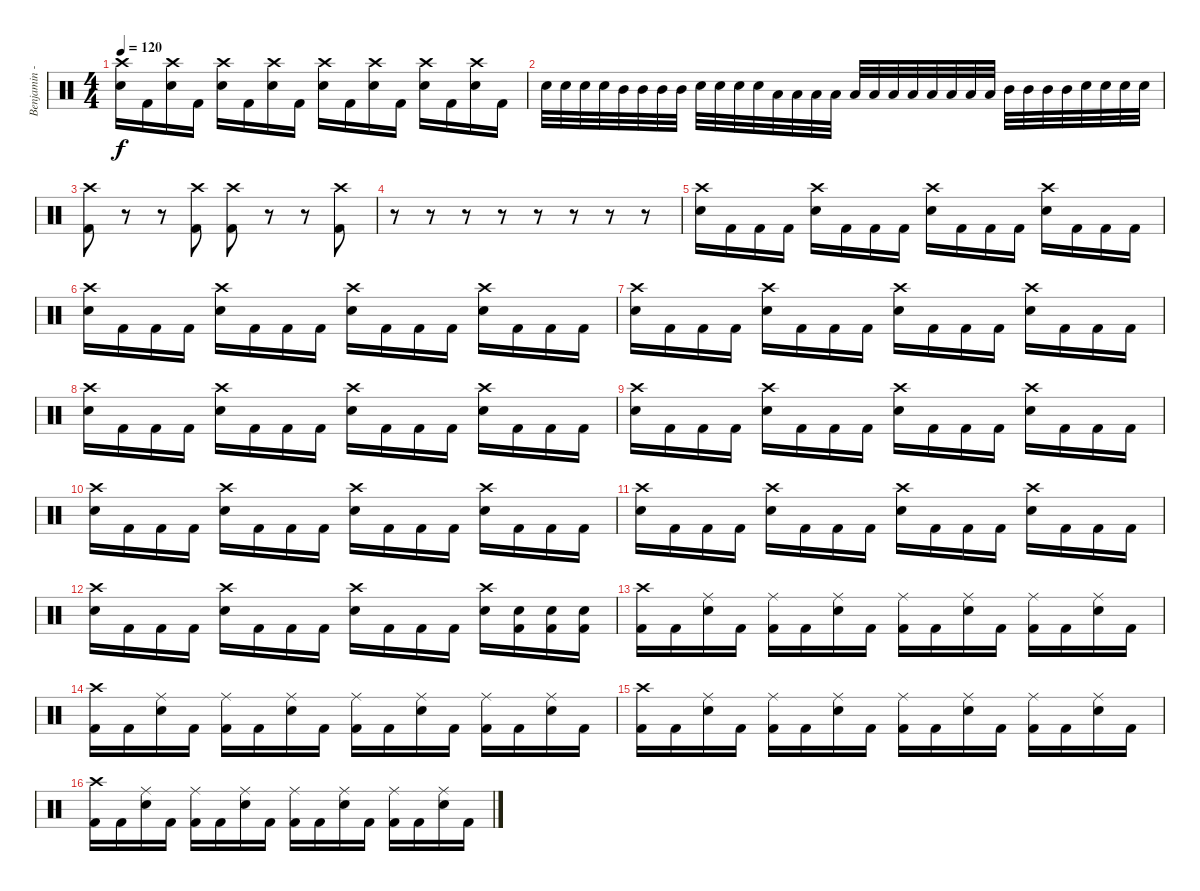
\track ("Benjamin - Drums" "Benjamin -") {instrument percussion}
\staff {score}
\articulation defaults
\ts (4 4)
\tempo 120
\clef neutral
\ks c
("Crash high (hit)" "Snare (hit) 2").16{dy f} "Kick (hit) 2".16 ("Crash high (hit)" "Snare (hit) 2").16 "Kick (hit) 2".16 ("Crash high (hit)" "Snare (hit) 2").16 "Kick (hit) 2".16 ("Crash high (hit)" "Snare (hit) 2").16 "Kick (hit) 2".16 ("Crash high (hit)" "Snare (hit) 2").16 "Kick (hit) 2".16 ("Crash high (hit)" "Snare (hit) 2").16 "Kick (hit) 2".16 ("Crash high (hit)" "Snare (hit) 2").16 "Kick (hit) 2".16 ("Crash high (hit)" "Snare (hit) 2").16 "Kick (hit) 2".16 |
"Snare (hit) 2".32 "Snare (hit) 2".32 "Snare (hit) 2".32 "Snare (hit) 2".32 "Mid Tom (hit)".32 "Mid Tom (hit)".32 "Mid Tom (hit)".32 "Mid Tom (hit)".32 "Snare (hit) 2".32 "Snare (hit) 2".32 "Snare (hit) 2".32 "Snare (hit) 2".32 "Low Tom (hit)".32 "Low Tom (hit)".32 "Low Tom (hit)".32 "Low Tom (hit)".32 "Low Floor Tom (hit)".32 "Low Floor Tom (hit)".32 "Low Floor Tom (hit)".32 "Low Floor Tom (hit)".32 "Low Tom (hit)".32 "Low Tom (hit)".32 "Low Tom (hit)".32 "Low Tom (hit)".32 "Mid Tom (hit)".32 "Mid Tom (hit)".32 "Mid Tom (hit)".32 "Mid Tom (hit)".32 "Snare (hit) 2".32 "Snare (hit) 2".32 "Snare (hit) 2".32 "Snare (hit) 2".32 |
("Crash high (hit)" "Kick (hit) 2").8 r.8 r.8 ("Crash high (hit)" "Kick (hit) 2").8 ("Crash high (hit)" "Kick (hit) 2").8 r.8 r.8 ("Crash high (hit)" "Kick (hit) 2").8 |
r.8 r.8 r.8 r.8 r.8 r.8 r.8 r.8 |
("Crash high (hit)" "Snare (hit) 2").16 "Kick (hit) 2".16 "Kick (hit) 2".16 "Kick (hit) 2".16 ("Crash high (hit)" "Snare (hit) 2").16 "Kick (hit) 2".16 "Kick (hit) 2".16 "Kick (hit) 2".16 ("Crash high (hit)" "Snare (hit) 2").16 "Kick (hit) 2".16 "Kick (hit) 2".16 "Kick (hit) 2".16 ("Crash high (hit)" "Snare (hit) 2").16 "Kick (hit) 2".16 "Kick (hit) 2".16 "Kick (hit) 2".16 |
("Crash high (hit)" "Snare (hit) 2").16 "Kick (hit) 2".16 "Kick (hit) 2".16 "Kick (hit) 2".16 ("Crash high (hit)" "Snare (hit) 2").16 "Kick (hit) 2".16 "Kick (hit) 2".16 "Kick (hit) 2".16 ("Crash high (hit)" "Snare (hit) 2").16 "Kick (hit) 2".16 "Kick (hit) 2".16 "Kick (hit) 2".16 ("Crash high (hit)" "Snare (hit) 2").16 "Kick (hit) 2".16 "Kick (hit) 2".16 "Kick (hit) 2".16 |
("Crash high (hit)" "Snare (hit) 2").16 "Kick (hit) 2".16 "Kick (hit) 2".16 "Kick (hit) 2".16 ("Crash high (hit)" "Snare (hit) 2").16 "Kick (hit) 2".16 "Kick (hit) 2".16 "Kick (hit) 2".16 ("Crash high (hit)" "Snare (hit) 2").16 "Kick (hit) 2".16 "Kick (hit) 2".16 "Kick (hit) 2".16 ("Crash high (hit)" "Snare (hit) 2").16 "Kick (hit) 2".16 "Kick (hit) 2".16 "Kick (hit) 2".16 |
("Crash high (hit)" "Snare (hit) 2").16 "Kick (hit) 2".16 "Kick (hit) 2".16 "Kick (hit) 2".16 ("Crash high (hit)" "Snare (hit) 2").16 "Kick (hit) 2".16 "Kick (hit) 2".16 "Kick (hit) 2".16 ("Crash high (hit)" "Snare (hit) 2").16 "Kick (hit) 2".16 "Kick (hit) 2".16 "Kick (hit) 2".16 ("Crash high (hit)" "Snare (hit) 2").16 "Kick (hit) 2".16 "Kick (hit) 2".16 "Kick (hit) 2".16 |
("Crash high (hit)" "Snare (hit) 2").16 "Kick (hit) 2".16 "Kick (hit) 2".16 "Kick (hit) 2".16 ("Crash high (hit)" "Snare (hit) 2").16 "Kick (hit) 2".16 "Kick (hit) 2".16 "Kick (hit) 2".16 ("Crash high (hit)" "Snare (hit) 2").16 "Kick (hit) 2".16 "Kick (hit) 2".16 "Kick (hit) 2".16 ("Crash high (hit)" "Snare (hit) 2").16 "Kick (hit) 2".16 "Kick (hit) 2".16 "Kick (hit) 2".16 |
("Crash high (hit)" "Snare (hit) 2").16 "Kick (hit) 2".16 "Kick (hit) 2".16 "Kick (hit) 2".16 ("Crash high (hit)" "Snare (hit) 2").16 "Kick (hit) 2".16 "Kick (hit) 2".16 "Kick (hit) 2".16 ("Crash high (hit)" "Snare (hit) 2").16 "Kick (hit) 2".16 "Kick (hit) 2".16 "Kick (hit) 2".16 ("Crash high (hit)" "Snare (hit) 2").16 "Kick (hit) 2".16 "Kick (hit) 2".16 "Kick (hit) 2".16 |
("Crash high (hit)" "Snare (hit) 2").16 "Kick (hit) 2".16 "Kick (hit) 2".16 "Kick (hit) 2".16 ("Crash high (hit)" "Snare (hit) 2").16 "Kick (hit) 2".16 "Kick (hit) 2".16 "Kick (hit) 2".16 ("Crash high (hit)" "Snare (hit) 2").16 "Kick (hit) 2".16 "Kick (hit) 2".16 "Kick (hit) 2".16 ("Crash high (hit)" "Snare (hit) 2").16 "Kick (hit) 2".16 "Kick (hit) 2".16 "Kick (hit) 2".16 |
("Crash high (hit)" "Snare (hit) 2").16 "Kick (hit) 2".16 "Kick (hit) 2".16 "Kick (hit) 2".16 ("Crash high (hit)" "Snare (hit) 2").16 "Kick (hit) 2".16 "Kick (hit) 2".16 "Kick (hit) 2".16 ("Crash high (hit)" "Snare (hit) 2").16 "Kick (hit) 2".16 "Kick (hit) 2".16 "Kick (hit) 2".16 ("Crash high (hit)" "Snare (hit) 2").16 ("Snare (hit) 2" "Kick (hit) 2").16 ("Snare (hit) 2" "Kick (hit) 2").16 ("Snare (hit) 2" "Kick (hit) 2").16 |
("Crash high (hit)" "Kick (hit) 2").16 "Kick (hit) 2".16 ("Ride (middle)" "Snare (hit) 2").16 "Kick (hit) 2".16 ("Ride (middle)" "Kick (hit) 2").16 "Kick (hit) 2".16 ("Ride (middle)" "Snare (hit) 2").16 "Kick (hit) 2".16 ("Ride (middle)" "Kick (hit) 2").16 "Kick (hit) 2".16 ("Ride (middle)" "Snare (hit) 2").16 "Kick (hit) 2".16 ("Ride (middle)" "Kick (hit) 2").16 "Kick (hit) 2".16 ("Ride (middle)" "Snare (hit) 2").16 "Kick (hit) 2".16 |
("Crash high (hit)" "Kick (hit) 2").16 "Kick (hit) 2".16 ("Ride (middle)" "Snare (hit) 2").16 "Kick (hit) 2".16 ("Ride (middle)" "Kick (hit) 2").16 "Kick (hit) 2".16 ("Ride (middle)" "Snare (hit) 2").16 "Kick (hit) 2".16 ("Ride (middle)" "Kick (hit) 2").16 "Kick (hit) 2".16 ("Ride (middle)" "Snare (hit) 2").16 "Kick (hit) 2".16 ("Ride (middle)" "Kick (hit) 2").16 "Kick (hit) 2".16 ("Ride (middle)" "Snare (hit) 2").16 "Kick (hit) 2".16 |
("Crash high (hit)" "Kick (hit) 2").16 "Kick (hit) 2".16 ("Ride (middle)" "Snare (hit) 2").16 "Kick (hit) 2".16 ("Ride (middle)" "Kick (hit) 2").16 "Kick (hit) 2".16 ("Ride (middle)" "Snare (hit) 2").16 "Kick (hit) 2".16 ("Ride (middle)" "Kick (hit) 2").16 "Kick (hit) 2".16 ("Ride (middle)" "Snare (hit) 2").16 "Kick (hit) 2".16 ("Ride (middle)" "Kick (hit) 2").16 "Kick (hit) 2".16 ("Ride (middle)" "Snare (hit) 2").16 "Kick (hit) 2".16 |
("Crash high (hit)" "Kick (hit) 2").16 "Kick (hit) 2".16 ("Ride (middle)" "Snare (hit) 2").16 "Kick (hit) 2".16 ("Ride (middle)" "Kick (hit) 2").16 "Kick (hit) 2".16 ("Ride (middle)" "Snare (hit) 2").16 "Kick (hit) 2".16 ("Ride (middle)" "Kick (hit) 2").16 "Kick (hit) 2".16 ("Ride (middle)" "Snare (hit) 2").16 "Kick (hit) 2".16 ("Ride (middle)" "Kick (hit) 2").16 "Kick (hit) 2".16 ("Ride (middle)" "Snare (hit) 2").16 "Kick (hit) 2".16
